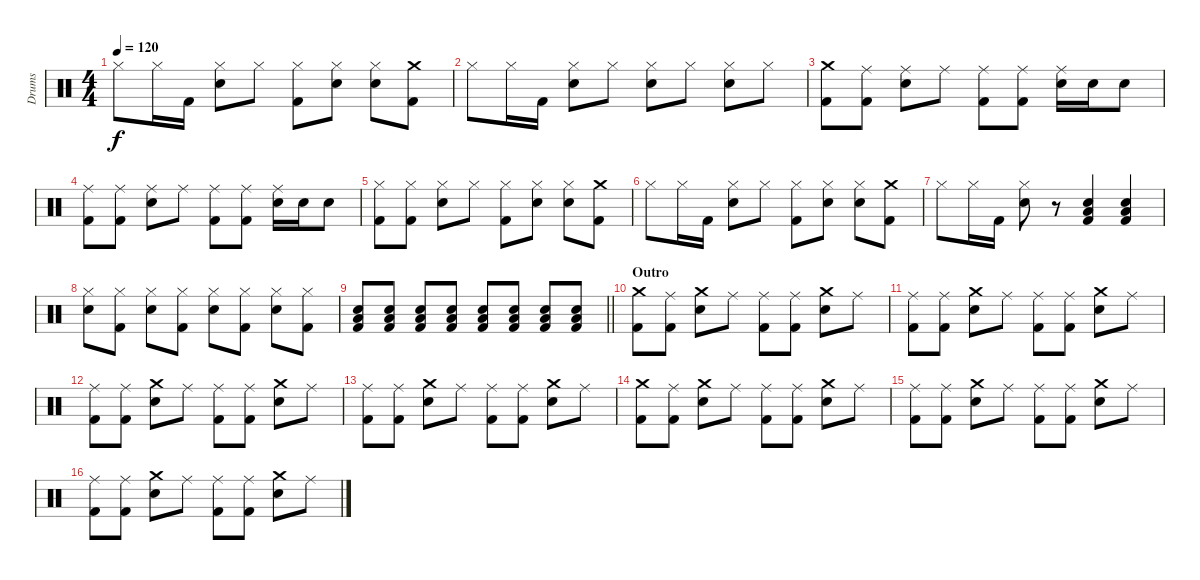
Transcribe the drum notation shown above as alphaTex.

\track ("Drums" "Drums") {instrument percussion}
\staff {score}
\articulation defaults
\ts (4 4)
\tempo 120
\clef neutral
\ks c "Hi-Hat (closed)".8{dy f} "Hi-Hat (closed)".16 "Kick (hit) 2".16
("Hi-Hat (closed)" "Electric Snare (hit)").8 "Hi-Hat (closed)".8 ("Hi-Hat (closed)" "Kick (hit) 2").8 ("Hi-Hat (closed)" "Electric Snare (hit)").8 ("Hi-Hat (closed)" "Electric Snare (hit)").8 ("Crash medium (hit)" "Kick (hit) 2").8 |
"Hi-Hat (closed)".8 "Hi-Hat (closed)".16 "Kick (hit) 2".16 ("Hi-Hat (closed)" "Electric Snare (hit)").8 "Hi-Hat (closed)".8 ("Hi-Hat (closed)" "Electric Snare (hit)").8 "Hi-Hat (closed)".8 ("Hi-Hat (closed)" "Electric Snare (hit)").8 "Hi-Hat (closed)".8 |
("Crash medium (hit)" "Kick (hit) 2").8 ("Ride (middle)" "Kick (hit) 2").8 ("Ride (middle)" "Electric Snare (hit)").8 "Ride (middle)".8 ("Ride (middle)" "Kick (hit) 2").8 ("Ride (middle)" "Kick (hit) 2").8 ("Ride (middle)" "Electric Snare (hit)").16 "Electric Snare (hit)".16 "Electric Snare (hit)".8 |
("Ride (middle)" "Kick (hit) 2").8 ("Ride (middle)" "Kick (hit) 2").8 ("Ride (middle)" "Electric Snare (hit)").8 "Ride (middle)".8 ("Ride (middle)" "Kick (hit) 2").8 ("Ride (middle)" "Kick (hit) 2").8 ("Ride (middle)" "Electric Snare (hit)").16 "Electric Snare (hit)".16 "Electric Snare (hit)".8 |
("Hi-Hat (closed)" "Kick (hit) 2").8 ("Hi-Hat (closed)" "Kick (hit) 2").8 ("Hi-Hat (closed)" "Electric Snare (hit)").8 "Hi-Hat (closed)".8 ("Hi-Hat (closed)" "Kick (hit) 2").8 ("Hi-Hat (closed)" "Electric Snare (hit)").8 ("Hi-Hat (closed)" "Electric Snare (hit)").8 ("Crash medium (hit)" "Kick (hit) 2").8 |
"Hi-Hat (closed)".8 "Hi-Hat (closed)".16 "Kick (hit) 2".16 ("Hi-Hat (closed)" "Electric Snare (hit)").8 "Hi-Hat (closed)".8 ("Hi-Hat (closed)" "Kick (hit) 2").8 ("Hi-Hat (closed)" "Electric Snare (hit)").8 ("Hi-Hat (closed)" "Electric Snare (hit)").8 ("Crash medium (hit)" "Kick (hit) 2").8 |
"Hi-Hat (closed)".8 "Hi-Hat (closed)".16 "Kick (hit) 2".16 ("Hi-Hat (closed)" "Electric Snare (hit)").8 r.8 ("Electric Snare (hit)" "Low Tom (hit)" "Kick (hit) 2").4 ("Electric Snare (hit)" "Low Tom (hit)" "Kick (hit) 2").4 |
("Hi-Hat (closed)" "Electric Snare (hit)").8 ("Hi-Hat (closed)" "Kick (hit) 2").8 ("Hi-Hat (closed)" "Electric Snare (hit)").8 ("Hi-Hat (closed)" "Kick (hit) 2").8 ("Hi-Hat (closed)" "Electric Snare (hit)").8 ("Hi-Hat (closed)" "Kick (hit) 2").8 ("Hi-Hat (closed)" "Electric Snare (hit)").8 ("Hi-Hat (closed)" "Kick (hit) 2").8 |
\barLineRight lightlight
("Electric Snare (hit)" "Low Tom (hit)" "Kick (hit) 2").8 ("Electric Snare (hit)" "Low Tom (hit)" "Kick (hit) 2").8 ("Electric Snare (hit)" "Low Tom (hit)" "Kick (hit) 2").8 ("Electric Snare (hit)" "Low Tom (hit)" "Kick (hit) 2").8 ("Electric Snare (hit)" "Low Tom (hit)" "Kick (hit) 2").8 ("Electric Snare (hit)" "Low Tom (hit)" "Kick (hit) 2").8 ("Electric Snare (hit)" "Low Tom (hit)" "Kick (hit) 2").8 ("Electric Snare (hit)" "Low Tom (hit)" "Kick (hit) 2").8 |
\section ("" "Outro")
("Crash medium (hit)" "Kick (hit) 2").8 ("Ride (middle)" "Kick (hit) 2").8 ("Crash medium (hit)" "Electric Snare (hit)").8 "Ride (middle)".8 ("Ride (middle)" "Kick (hit) 2").8 ("Ride (middle)" "Kick (hit) 2").8 ("Crash medium (hit)" "Electric Snare (hit)").8 "Ride (middle)".8 |
("Ride (middle)" "Kick (hit) 2").8 ("Ride (middle)" "Kick (hit) 2").8 ("Crash medium (hit)" "Electric Snare (hit)").8 "Ride (middle)".8 ("Ride (middle)" "Kick (hit) 2").8 ("Ride (middle)" "Kick (hit) 2").8 ("Crash medium (hit)" "Electric Snare (hit)").8 "Ride (middle)".8 |
("Ride (middle)" "Kick (hit) 2").8 ("Ride (middle)" "Kick (hit) 2").8 ("Crash medium (hit)" "Electric Snare (hit)").8 "Ride (middle)".8 ("Ride (middle)" "Kick (hit) 2").8 ("Ride (middle)" "Kick (hit) 2").8 ("Crash medium (hit)" "Electric Snare (hit)").8 "Ride (middle)".8 |
("Ride (middle)" "Kick (hit) 2").8 ("Ride (middle)" "Kick (hit) 2").8 ("Crash medium (hit)" "Electric Snare (hit)").8 "Ride (middle)".8 ("Ride (middle)" "Kick (hit) 2").8 ("Ride (middle)" "Kick (hit) 2").8 ("Crash medium (hit)" "Electric Snare (hit)").8 "Ride (middle)".8 |
("Crash medium (hit)" "Kick (hit) 2").8 ("Ride (middle)" "Kick (hit) 2").8 ("Crash medium (hit)" "Electric Snare (hit)").8 "Ride (middle)".8 ("Ride (middle)" "Kick (hit) 2").8 ("Ride (middle)" "Kick (hit) 2").8 ("Crash medium (hit)" "Electric Snare (hit)").8 "Ride (middle)".8 |
("Ride (middle)" "Kick (hit) 2").8 ("Ride (middle)" "Kick (hit) 2").8 ("Crash medium (hit)" "Electric Snare (hit)").8 "Ride (middle)".8 ("Ride (middle)" "Kick (hit) 2").8 ("Ride (middle)" "Kick (hit) 2").8 ("Crash medium (hit)" "Electric Snare (hit)").8 "Ride (middle)".8 |
("Ride (middle)" "Kick (hit) 2").8 ("Ride (middle)" "Kick (hit) 2").8 ("Crash medium (hit)" "Electric Snare (hit)").8 "Ride (middle)".8 ("Ride (middle)" "Kick (hit) 2").8 ("Ride (middle)" "Kick (hit) 2").8 ("Crash medium (hit)" "Electric Snare (hit)").8 "Ride (middle)".8
